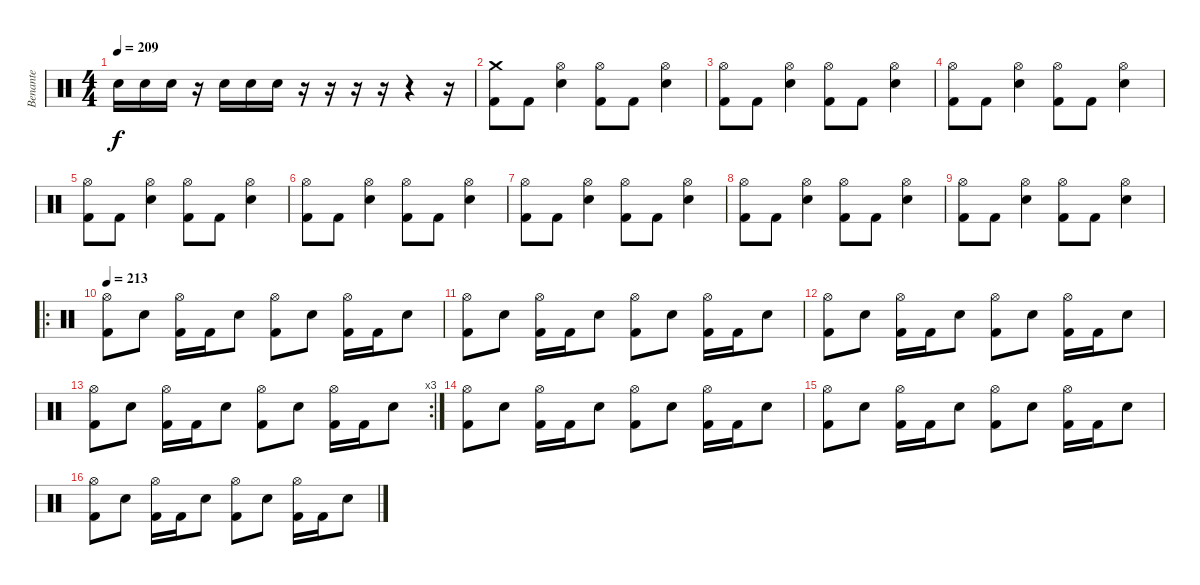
\track ("Benante" "Benante") {solo instrument percussion}
\staff {score}
\articulation defaults
\ts (4 4)
\tempo 209
\clef neutral
\ks c "Electric Snare (hit)".16{dy f} "Electric Snare (hit)".16 "Electric Snare (hit)".16
r.16 "Electric Snare (hit)".16 "Electric Snare (hit)".16 "Electric Snare (hit)".16 r.16 r.16 r.16 r.16 r.4 r.16 |
("Kick (hit) 2" "Crash medium (hit)").8 "Kick (hit) 2".8 ("Electric Snare (hit)" "Hi-Hat (open)").4 ("Kick (hit) 2" "Hi-Hat (open)").8 "Kick (hit) 2".8 ("Electric Snare (hit)" "Hi-Hat (open)").4 |
("Kick (hit) 2" "Hi-Hat (open)").8 "Kick (hit) 2".8 ("Electric Snare (hit)" "Hi-Hat (open)").4 ("Kick (hit) 2" "Hi-Hat (open)").8 "Kick (hit) 2".8 ("Electric Snare (hit)" "Hi-Hat (open)").4 |
("Kick (hit) 2" "Hi-Hat (open)").8 "Kick (hit) 2".8 ("Electric Snare (hit)" "Hi-Hat (open)").4 ("Kick (hit) 2" "Hi-Hat (open)").8 "Kick (hit) 2".8 ("Electric Snare (hit)" "Hi-Hat (open)").4 |
("Kick (hit) 2" "Hi-Hat (open)").8 "Kick (hit) 2".8 ("Electric Snare (hit)" "Hi-Hat (open)").4 ("Kick (hit) 2" "Hi-Hat (open)").8 "Kick (hit) 2".8 ("Electric Snare (hit)" "Hi-Hat (open)").4 |
("Kick (hit) 2" "Hi-Hat (open)").8 "Kick (hit) 2".8 ("Electric Snare (hit)" "Hi-Hat (open)").4 ("Kick (hit) 2" "Hi-Hat (open)").8 "Kick (hit) 2".8 ("Electric Snare (hit)" "Hi-Hat (open)").4 |
("Kick (hit) 2" "Hi-Hat (open)").8 "Kick (hit) 2".8 ("Electric Snare (hit)" "Hi-Hat (open)").4 ("Kick (hit) 2" "Hi-Hat (open)").8 "Kick (hit) 2".8 ("Electric Snare (hit)" "Hi-Hat (open)").4 |
("Kick (hit) 2" "Hi-Hat (open)").8 "Kick (hit) 2".8 ("Electric Snare (hit)" "Hi-Hat (open)").4 ("Kick (hit) 2" "Hi-Hat (open)").8 "Kick (hit) 2".8 ("Electric Snare (hit)" "Hi-Hat (open)").4 |
("Kick (hit) 2" "Hi-Hat (open)").8 "Kick (hit) 2".8 ("Electric Snare (hit)" "Hi-Hat (open)").4 ("Kick (hit) 2" "Hi-Hat (open)").8 "Kick (hit) 2".8 ("Electric Snare (hit)" "Hi-Hat (open)").4 |
\ro
\tempo 213
("Kick (hit) 2" "Hi-Hat (open)").8 "Electric Snare (hit)".8 ("Kick (hit) 2" "Hi-Hat (open)").16 "Kick (hit) 2".16 "Electric Snare (hit)".8 ("Kick (hit) 2" "Hi-Hat (open)").8 "Electric Snare (hit)".8 ("Kick (hit) 2" "Hi-Hat (open)").16 "Kick (hit) 2".16 "Electric Snare (hit)".8 |
("Kick (hit) 2" "Hi-Hat (open)").8 "Electric Snare (hit)".8 ("Kick (hit) 2" "Hi-Hat (open)").16 "Kick (hit) 2".16 "Electric Snare (hit)".8 ("Kick (hit) 2" "Hi-Hat (open)").8 "Electric Snare (hit)".8 ("Kick (hit) 2" "Hi-Hat (open)").16 "Kick (hit) 2".16 "Electric Snare (hit)".8 |
("Kick (hit) 2" "Hi-Hat (open)").8 "Electric Snare (hit)".8 ("Kick (hit) 2" "Hi-Hat (open)").16 "Kick (hit) 2".16 "Electric Snare (hit)".8 ("Kick (hit) 2" "Hi-Hat (open)").8 "Electric Snare (hit)".8 ("Kick (hit) 2" "Hi-Hat (open)").16 "Kick (hit) 2".16 "Electric Snare (hit)".8 |
\rc 3
("Kick (hit) 2" "Hi-Hat (open)").8 "Electric Snare (hit)".8 ("Kick (hit) 2" "Hi-Hat (open)").16 "Kick (hit) 2".16 "Electric Snare (hit)".8 ("Kick (hit) 2" "Hi-Hat (open)").8 "Electric Snare (hit)".8 ("Kick (hit) 2" "Hi-Hat (open)").16 "Kick (hit) 2".16 "Electric Snare (hit)".8 |
("Kick (hit) 2" "Hi-Hat (open)").8 "Electric Snare (hit)".8 ("Kick (hit) 2" "Hi-Hat (open)").16 "Kick (hit) 2".16 "Electric Snare (hit)".8 ("Kick (hit) 2" "Hi-Hat (open)").8 "Electric Snare (hit)".8 ("Kick (hit) 2" "Hi-Hat (open)").16 "Kick (hit) 2".16 "Electric Snare (hit)".8 |
("Kick (hit) 2" "Hi-Hat (open)").8 "Electric Snare (hit)".8 ("Kick (hit) 2" "Hi-Hat (open)").16 "Kick (hit) 2".16 "Electric Snare (hit)".8 ("Kick (hit) 2" "Hi-Hat (open)").8 "Electric Snare (hit)".8 ("Kick (hit) 2" "Hi-Hat (open)").16 "Kick (hit) 2".16 "Electric Snare (hit)".8 |
("Kick (hit) 2" "Hi-Hat (open)").8 "Electric Snare (hit)".8 ("Kick (hit) 2" "Hi-Hat (open)").16 "Kick (hit) 2".16 "Electric Snare (hit)".8 ("Kick (hit) 2" "Hi-Hat (open)").8 "Electric Snare (hit)".8 ("Kick (hit) 2" "Hi-Hat (open)").16 "Kick (hit) 2".16 "Electric Snare (hit)".8
